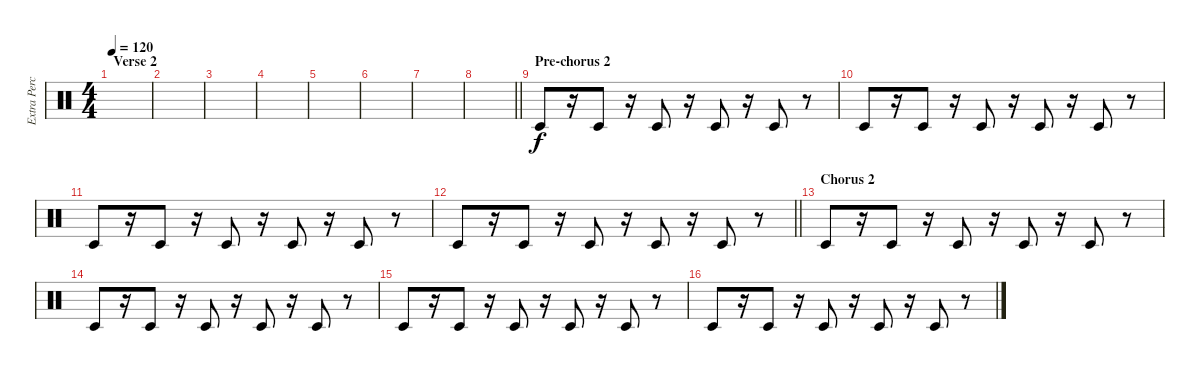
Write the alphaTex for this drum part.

\track ("Extra Percussion" "Extra Perc") {instrument percussion}
\staff {score}
\articulation defaults
\ts (4 4)
\section ("" "Verse 2")
\tempo 120
\clef neutral
\ks c
|
|
|
|
|
|
|
\barLineRight lightlight
|
\section ("" "Pre-chorus 2")
"Timbale low (hit)".8 r.16 "Timbale low (hit)".8 r.16 "Timbale low (hit)".8 r.16 "Timbale low (hit)".8 r.16 "Timbale low (hit)".8 r.8 |
"Timbale low (hit)".8 r.16 "Timbale low (hit)".8 r.16 "Timbale low (hit)".8 r.16 "Timbale low (hit)".8 r.16 "Timbale low (hit)".8 r.8 |
"Timbale low (hit)".8 r.16 "Timbale low (hit)".8 r.16 "Timbale low (hit)".8 r.16 "Timbale low (hit)".8 r.16 "Timbale low (hit)".8 r.8 |
\barLineRight lightlight "Timbale low (hit)".8
r.16 "Timbale low (hit)".8 r.16 "Timbale low (hit)".8 r.16 "Timbale low (hit)".8 r.16 "Timbale low (hit)".8 r.8 |
\section ("" "Chorus 2")
"Timbale low (hit)".8 r.16 "Timbale low (hit)".8 r.16 "Timbale low (hit)".8 r.16 "Timbale low (hit)".8 r.16 "Timbale low (hit)".8 r.8 |
"Timbale low (hit)".8 r.16 "Timbale low (hit)".8 r.16 "Timbale low (hit)".8 r.16 "Timbale low (hit)".8 r.16 "Timbale low (hit)".8 r.8 |
"Timbale low (hit)".8 r.16 "Timbale low (hit)".8 r.16 "Timbale low (hit)".8 r.16 "Timbale low (hit)".8 r.16 "Timbale low (hit)".8 r.8 |
"Timbale low (hit)".8 r.16 "Timbale low (hit)".8 r.16 "Timbale low (hit)".8 r.16 "Timbale low (hit)".8 r.16 "Timbale low (hit)".8 r.8
